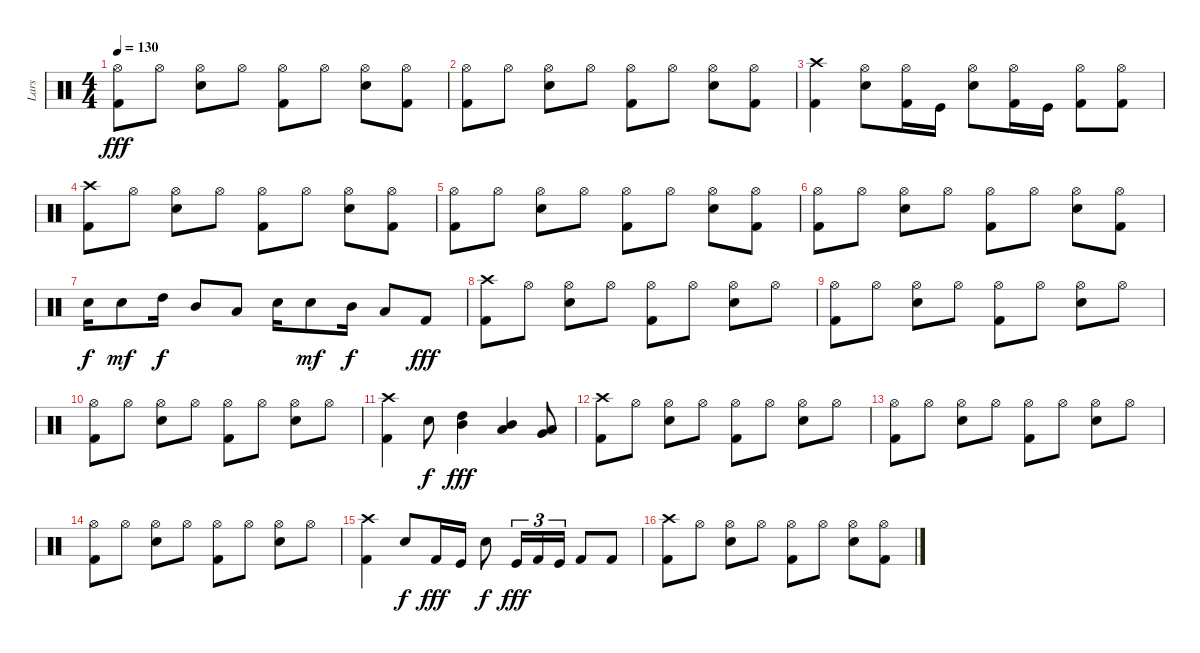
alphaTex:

\track ("Lars" "Lars") {instrument percussion}
\staff {score}
\articulation defaults
\ts (4 4)
\tempo 130
\clef neutral
\ks c
("Hi-Hat (open)" "Kick (hit) 2").8{dy fff} "Hi-Hat (open)".8 ("Hi-Hat (open)" "Snare (hit) 2").8 "Hi-Hat (open)".8 ("Hi-Hat (open)" "Kick (hit) 2").8 "Hi-Hat (open)".8 ("Hi-Hat (open)" "Snare (hit) 2").8 ("Hi-Hat (open)" "Kick (hit) 2").8 |
("Hi-Hat (open)" "Kick (hit) 2").8 "Hi-Hat (open)".8 ("Hi-Hat (open)" "Snare (hit) 2").8 "Hi-Hat (open)".8 ("Hi-Hat (open)" "Kick (hit) 2").8 "Hi-Hat (open)".8 ("Hi-Hat (open)" "Snare (hit) 2").8 ("Hi-Hat (open)" "Kick (hit) 2").8 |
("Crash high (hit)" "Kick (hit) 2").4 ("Hi-Hat (open)" "Snare (hit) 2").8 ("Hi-Hat (open)" "Kick (hit) 2").16 "Kick (hit)".16 ("Hi-Hat (open)" "Snare (hit) 2").8 ("Hi-Hat (open)" "Kick (hit) 2").16 "Kick (hit)".16 ("Hi-Hat (open)" "Kick (hit) 2").8 ("Hi-Hat (open)" "Kick (hit) 2").8 |
("Crash high (hit)" "Kick (hit) 2").8 "Hi-Hat (open)".8 ("Hi-Hat (open)" "Snare (hit) 2").8 "Hi-Hat (open)".8 ("Hi-Hat (open)" "Kick (hit) 2").8 "Hi-Hat (open)".8 ("Hi-Hat (open)" "Snare (hit) 2").8 ("Hi-Hat (open)" "Kick (hit) 2").8 |
("Hi-Hat (open)" "Kick (hit) 2").8 "Hi-Hat (open)".8 ("Hi-Hat (open)" "Snare (hit) 2").8 "Hi-Hat (open)".8 ("Hi-Hat (open)" "Kick (hit) 2").8 "Hi-Hat (open)".8 ("Hi-Hat (open)" "Snare (hit) 2").8 ("Hi-Hat (open)" "Kick (hit) 2").8 |
("Hi-Hat (open)" "Kick (hit) 2").8 "Hi-Hat (open)".8 ("Hi-Hat (open)" "Snare (hit) 2").8 "Hi-Hat (open)".8 ("Hi-Hat (open)" "Kick (hit) 2").8 "Hi-Hat (open)".8 ("Hi-Hat (open)" "Snare (hit) 2").8 ("Hi-Hat (open)" "Kick (hit) 2").8 |
"Snare (hit) 2".16{dy f} "Snare (hit) 2".8{dy mf} "High Tom (hit)".16{dy f} "Mid Tom (hit)".8 "Low Tom (hit)".8 "Snare (hit) 2".16 "Snare (hit) 2".8{dy mf} "Mid Tom (hit)".16{dy f} "Low Tom (hit)".8 "Kick (hit) 2".8{dy fff} |
("Crash high (hit)" "Kick (hit) 2").8 "Hi-Hat (open)".8 ("Hi-Hat (open)" "Snare (hit) 2").8 "Hi-Hat (open)".8 ("Hi-Hat (open)" "Kick (hit) 2").8 "Hi-Hat (open)".8 ("Hi-Hat (open)" "Snare (hit) 2").8 "Hi-Hat (open)".8 |
("Hi-Hat (open)" "Kick (hit) 2").8 "Hi-Hat (open)".8 ("Hi-Hat (open)" "Snare (hit) 2").8 "Hi-Hat (open)".8 ("Hi-Hat (open)" "Kick (hit) 2").8 "Hi-Hat (open)".8 ("Hi-Hat (open)" "Snare (hit) 2").8 "Hi-Hat (open)".8 |
("Hi-Hat (open)" "Kick (hit) 2").8 "Hi-Hat (open)".8 ("Hi-Hat (open)" "Snare (hit) 2").8 "Hi-Hat (open)".8 ("Hi-Hat (open)" "Kick (hit) 2").8 "Hi-Hat (open)".8 ("Hi-Hat (open)" "Snare (hit) 2").8 "Hi-Hat (open)".8 |
("Crash high (hit)" "Kick (hit) 2").4 "Snare (hit) 2".8{dy f} ("High Tom (hit)" "Mid Tom (hit)").4{dy fff} ("Mid Tom (hit)" "Low Tom (hit)").4 ("Low Tom (hit)" "Very Low Tom (hit)").8 |
("Crash high (hit)" "Kick (hit) 2").8 "Hi-Hat (open)".8 ("Hi-Hat (open)" "Snare (hit) 2").8 "Hi-Hat (open)".8 ("Hi-Hat (open)" "Kick (hit) 2").8 "Hi-Hat (open)".8 ("Hi-Hat (open)" "Snare (hit) 2").8 "Hi-Hat (open)".8 |
("Hi-Hat (open)" "Kick (hit) 2").8 "Hi-Hat (open)".8 ("Hi-Hat (open)" "Snare (hit) 2").8 "Hi-Hat (open)".8 ("Hi-Hat (open)" "Kick (hit) 2").8 "Hi-Hat (open)".8 ("Hi-Hat (open)" "Snare (hit) 2").8 "Hi-Hat (open)".8 |
("Hi-Hat (open)" "Kick (hit) 2").8 "Hi-Hat (open)".8 ("Hi-Hat (open)" "Snare (hit) 2").8 "Hi-Hat (open)".8 ("Hi-Hat (open)" "Kick (hit) 2").8 "Hi-Hat (open)".8 ("Hi-Hat (open)" "Snare (hit) 2").8 "Hi-Hat (open)".8 |
("Crash high (hit)" "Kick (hit) 2").4 "Snare (hit) 2".8{dy f} "Kick (hit) 2".16{dy fff} "Kick (hit)".16 "Snare (hit) 2".8{dy f} "Kick (hit)".16{tu (3 2) dy fff} "Kick (hit) 2".16{tu (3 2)} "Kick (hit)".16{tu (3 2)} "Kick (hit) 2".8 "Kick (hit) 2".8 |
("Crash high (hit)" "Kick (hit) 2").8 "Hi-Hat (open)".8 ("Hi-Hat (open)" "Snare (hit) 2").8 "Hi-Hat (open)".8 ("Hi-Hat (open)" "Kick (hit) 2").8 "Hi-Hat (open)".8 ("Hi-Hat (open)" "Snare (hit) 2").8 ("Hi-Hat (open)" "Kick (hit) 2").8
